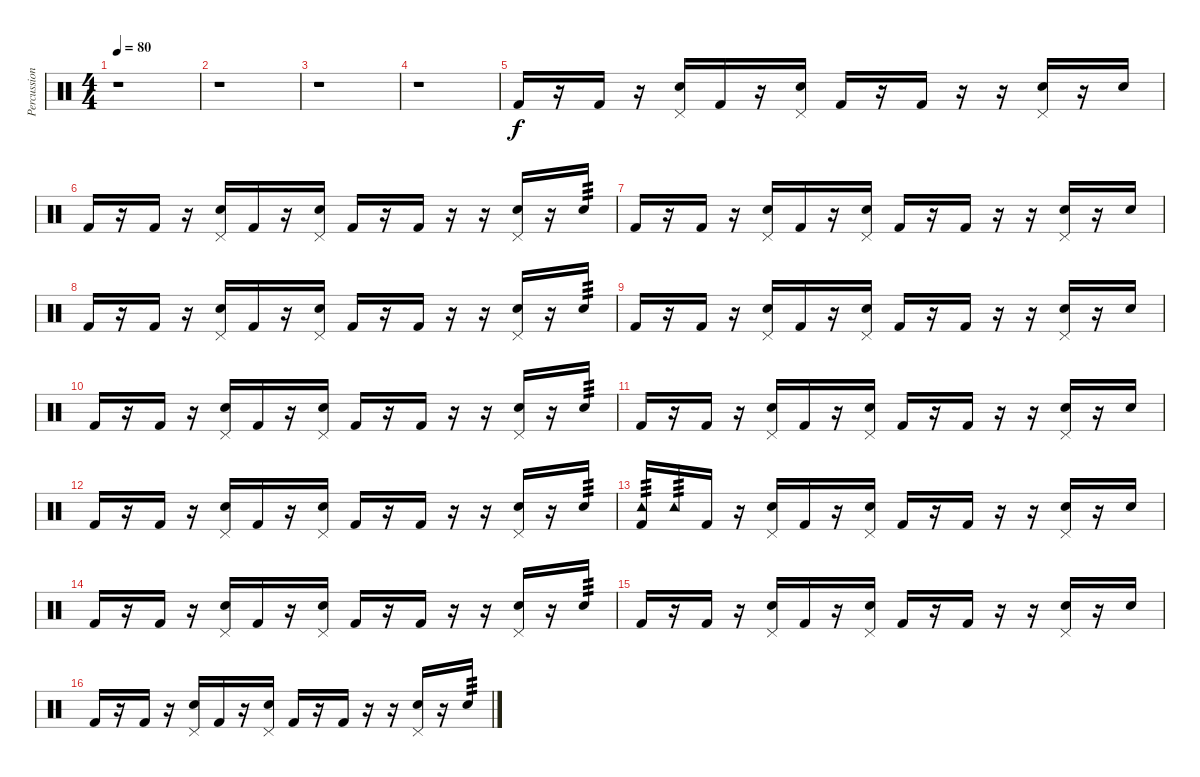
\track ("Percussion" "Percussion") {instrument percussion}
\staff {score}
\articulation defaults
\ts (4 4)
\tempo 80
\clef neutral
\ks c
r.1{dy f} |
r.1 |
r.1 |
r.1 |
"Kick (hit) 2".16 r.16 "Kick (hit) 2".16 r.16 ("Hand Clap (hit)" "Pedal Hi-Hat (hit)").16 "Kick (hit) 2".16 r.16 ("Hand Clap (hit)" "Pedal Hi-Hat (hit)").16 "Kick (hit) 2".16 r.16 "Kick (hit) 2".16 r.16 r.16 ("Hand Clap (hit)" "Pedal Hi-Hat (hit)").16 r.16 "Hand Clap (hit)".16 |
"Kick (hit) 2".16 r.16 "Kick (hit) 2".16 r.16 ("Hand Clap (hit)" "Pedal Hi-Hat (hit)").16 "Kick (hit) 2".16 r.16 ("Hand Clap (hit)" "Pedal Hi-Hat (hit)").16 "Kick (hit) 2".16 r.16 "Kick (hit) 2".16 r.16 r.16 ("Hand Clap (hit)" "Pedal Hi-Hat (hit)").16 r.16 "Hand Clap (hit)".16{tp 3} |
"Kick (hit) 2".16 r.16 "Kick (hit) 2".16 r.16 ("Hand Clap (hit)" "Pedal Hi-Hat (hit)").16 "Kick (hit) 2".16 r.16 ("Hand Clap (hit)" "Pedal Hi-Hat (hit)").16 "Kick (hit) 2".16 r.16 "Kick (hit) 2".16 r.16 r.16 ("Hand Clap (hit)" "Pedal Hi-Hat (hit)").16 r.16 "Hand Clap (hit)".16 |
"Kick (hit) 2".16 r.16 "Kick (hit) 2".16 r.16 ("Hand Clap (hit)" "Pedal Hi-Hat (hit)").16 "Kick (hit) 2".16 r.16 ("Hand Clap (hit)" "Pedal Hi-Hat (hit)").16 "Kick (hit) 2".16 r.16 "Kick (hit) 2".16 r.16 r.16 ("Hand Clap (hit)" "Pedal Hi-Hat (hit)").16 r.16 "Hand Clap (hit)".16{tp 3} |
"Kick (hit) 2".16 r.16 "Kick (hit) 2".16 r.16 ("Hand Clap (hit)" "Pedal Hi-Hat (hit)").16 "Kick (hit) 2".16 r.16 ("Hand Clap (hit)" "Pedal Hi-Hat (hit)").16 "Kick (hit) 2".16 r.16 "Kick (hit) 2".16 r.16 r.16 ("Hand Clap (hit)" "Pedal Hi-Hat (hit)").16 r.16 "Hand Clap (hit)".16 |
"Kick (hit) 2".16 r.16 "Kick (hit) 2".16 r.16 ("Hand Clap (hit)" "Pedal Hi-Hat (hit)").16 "Kick (hit) 2".16 r.16 ("Hand Clap (hit)" "Pedal Hi-Hat (hit)").16 "Kick (hit) 2".16 r.16 "Kick (hit) 2".16 r.16 r.16 ("Hand Clap (hit)" "Pedal Hi-Hat (hit)").16 r.16 "Hand Clap (hit)".16{tp 3} |
"Kick (hit) 2".16 r.16 "Kick (hit) 2".16 r.16 ("Hand Clap (hit)" "Pedal Hi-Hat (hit)").16 "Kick (hit) 2".16 r.16 ("Hand Clap (hit)" "Pedal Hi-Hat (hit)").16 "Kick (hit) 2".16 r.16 "Kick (hit) 2".16 r.16 r.16 ("Hand Clap (hit)" "Pedal Hi-Hat (hit)").16 r.16 "Hand Clap (hit)".16 |
"Kick (hit) 2".16 r.16 "Kick (hit) 2".16 r.16 ("Hand Clap (hit)" "Pedal Hi-Hat (hit)").16 "Kick (hit) 2".16 r.16 ("Hand Clap (hit)" "Pedal Hi-Hat (hit)").16 "Kick (hit) 2".16 r.16 "Kick (hit) 2".16 r.16 r.16 ("Hand Clap (hit)" "Pedal Hi-Hat (hit)").16 r.16 "Hand Clap (hit)".16{tp 3} |
("Kick (hit) 2" "Tambourine (hit)").16{tp 3} "Tambourine (hit)".16{tp 3} "Kick (hit) 2".16 r.16 ("Hand Clap (hit)" "Pedal Hi-Hat (hit)").16 "Kick (hit) 2".16 r.16 ("Hand Clap (hit)" "Pedal Hi-Hat (hit)").16 "Kick (hit) 2".16 r.16 "Kick (hit) 2".16 r.16 r.16 ("Hand Clap (hit)" "Pedal Hi-Hat (hit)").16 r.16 "Hand Clap (hit)".16 |
"Kick (hit) 2".16 r.16 "Kick (hit) 2".16 r.16 ("Hand Clap (hit)" "Pedal Hi-Hat (hit)").16 "Kick (hit) 2".16 r.16 ("Hand Clap (hit)" "Pedal Hi-Hat (hit)").16 "Kick (hit) 2".16 r.16 "Kick (hit) 2".16 r.16 r.16 ("Hand Clap (hit)" "Pedal Hi-Hat (hit)").16 r.16 "Hand Clap (hit)".16{tp 3} |
"Kick (hit) 2".16 r.16 "Kick (hit) 2".16 r.16 ("Hand Clap (hit)" "Pedal Hi-Hat (hit)").16 "Kick (hit) 2".16 r.16 ("Hand Clap (hit)" "Pedal Hi-Hat (hit)").16 "Kick (hit) 2".16 r.16 "Kick (hit) 2".16 r.16 r.16 ("Hand Clap (hit)" "Pedal Hi-Hat (hit)").16 r.16 "Hand Clap (hit)".16 |
"Kick (hit) 2".16 r.16 "Kick (hit) 2".16 r.16 ("Hand Clap (hit)" "Pedal Hi-Hat (hit)").16 "Kick (hit) 2".16 r.16 ("Hand Clap (hit)" "Pedal Hi-Hat (hit)").16 "Kick (hit) 2".16 r.16 "Kick (hit) 2".16 r.16 r.16 ("Hand Clap (hit)" "Pedal Hi-Hat (hit)").16 r.16 "Hand Clap (hit)".16{tp 3}
